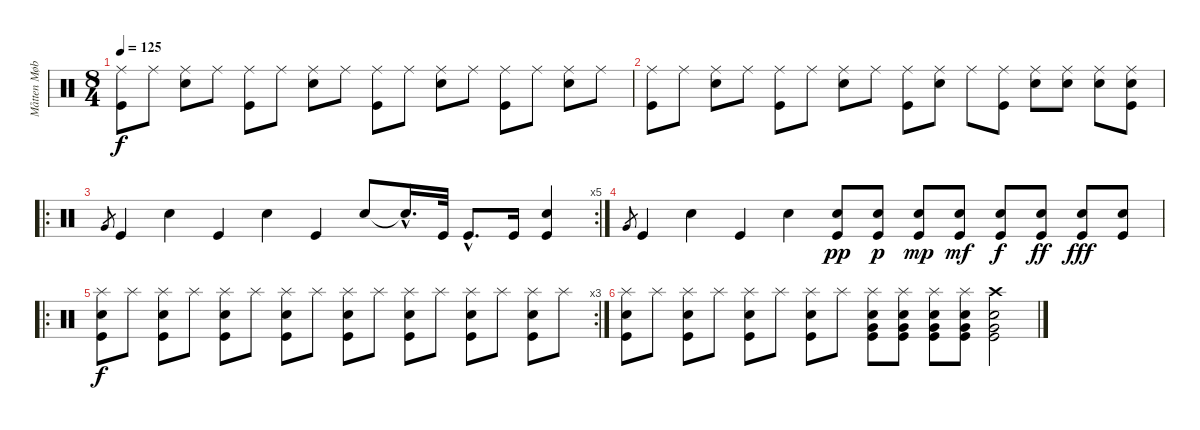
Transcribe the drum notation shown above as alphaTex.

\track ("Måtten Møbelbanker" "Måtten Møb") {instrument percussion}
\staff {score}
\articulation defaults
\ts (8 4)
\tempo 125
\clef neutral
\ks c
("Ride (middle)" "Kick (hit)").8{dy f} "Ride (middle)".8 ("Ride (middle)" "Snare (hit) 2").8 "Ride (middle)".8 ("Ride (middle)" "Kick (hit)").8 "Ride (middle)".8 ("Ride (middle)" "Snare (hit) 2").8 "Ride (middle)".8 ("Ride (middle)" "Kick (hit)").8 "Ride (middle)".8 ("Ride (middle)" "Snare (hit) 2").8 "Ride (middle)".8 ("Ride (middle)" "Kick (hit)").8 "Ride (middle)".8 ("Ride (middle)" "Snare (hit) 2").8 "Ride (middle)".8 |
("Ride (middle)" "Kick (hit)").8 "Ride (middle)".8 ("Ride (middle)" "Snare (hit) 2").8 "Ride (middle)".8 ("Ride (middle)" "Kick (hit)").8 "Ride (middle)".8 ("Ride (middle)" "Snare (hit) 2").8 "Ride (middle)".8 ("Ride (middle)" "Kick (hit)").8 ("Ride (middle)" "Snare (hit) 2").8 "Ride (middle)".8 ("Ride (middle)" "Kick (hit)").8 ("Ride (middle)" "Snare (hit) 2").8 ("Ride (middle)" "Snare (hit) 2").8 ("Ride (middle)" "Snare (hit) 2").8 ("Ride (middle)" "Kick (hit)" "Snare (hit) 2").8 |
\ro
\rc 5 "Very Low Tom (hit)".8{gr} "Kick (hit)".4 "Snare (hit) 2".4 "Kick (hit)".4 "Snare (hit) 2".4 "Kick (hit)".4 "Snare (hit) 2".8 "Snare (hit)"{hac t}.16{d} "Kick (hit)".32 "Kick (hit)"{hac}.8{d} "Kick (hit)".16
("Kick (hit)" "Snare (hit) 2").4 |
"Very Low Tom (hit)".8{gr} "Kick (hit)".4 "Snare (hit) 2".4 "Kick (hit)".4 "Snare (hit) 2".4 ("Kick (hit)" "Snare (hit) 2").8{dy pp} ("Kick (hit)" "Snare (hit) 2").8{dy p} ("Kick (hit)" "Snare (hit) 2").8{dy mp} ("Kick (hit)" "Snare (hit) 2").8{dy mf} ("Kick (hit)" "Snare (hit) 2").8{dy f} ("Kick (hit)" "Snare (hit) 2").8{dy ff} ("Kick (hit)" "Snare (hit) 2").8{dy fff} ("Kick (hit)" "Snare (hit) 2").8 |
\ro
\rc 3
("Splash (hit)" "Snare (hit) 2" "Kick (hit)").8{dy f} "Splash (hit)".8 ("Splash (hit)" "Snare (hit) 2" "Kick (hit)").8 "Splash (hit)".8 ("Splash (hit)" "Snare (hit) 2" "Kick (hit)").8 "Splash (hit)".8 ("Splash (hit)" "Snare (hit) 2" "Kick (hit)").8 "Splash (hit)".8 ("Splash (hit)" "Snare (hit) 2" "Kick (hit)").8 "Splash (hit)".8 ("Splash (hit)" "Snare (hit) 2" "Kick (hit)").8 "Splash (hit)".8 ("Splash (hit)" "Snare (hit) 2" "Kick (hit)").8 "Splash (hit)".8 ("Splash (hit)" "Snare (hit) 2" "Kick (hit)").8 "Splash (hit)".8 |
("Splash (hit)" "Snare (hit) 2" "Kick (hit)").8 "Splash (hit)".8 ("Splash (hit)" "Snare (hit) 2" "Kick (hit)").8 "Splash (hit)".8 ("Splash (hit)" "Snare (hit) 2" "Kick (hit)").8 "Splash (hit)".8 ("Splash (hit)" "Snare (hit) 2" "Kick (hit)").8 "Splash (hit)".8 ("Splash (hit)" "Very Low Tom (hit)" "Snare (hit) 2" "Kick (hit)").8 ("Splash (hit)" "Very Low Tom (hit)" "Snare (hit) 2" "Kick (hit)").8 ("Splash (hit)" "Very Low Tom (hit)" "Snare (hit) 2" "Kick (hit)").8 ("Splash (hit)" "Very Low Tom (hit)" "Snare (hit) 2" "Kick (hit)").8 ("Crash high (hit)" "Very Low Tom (hit)" "Snare (hit) 2" "Kick (hit)").2
